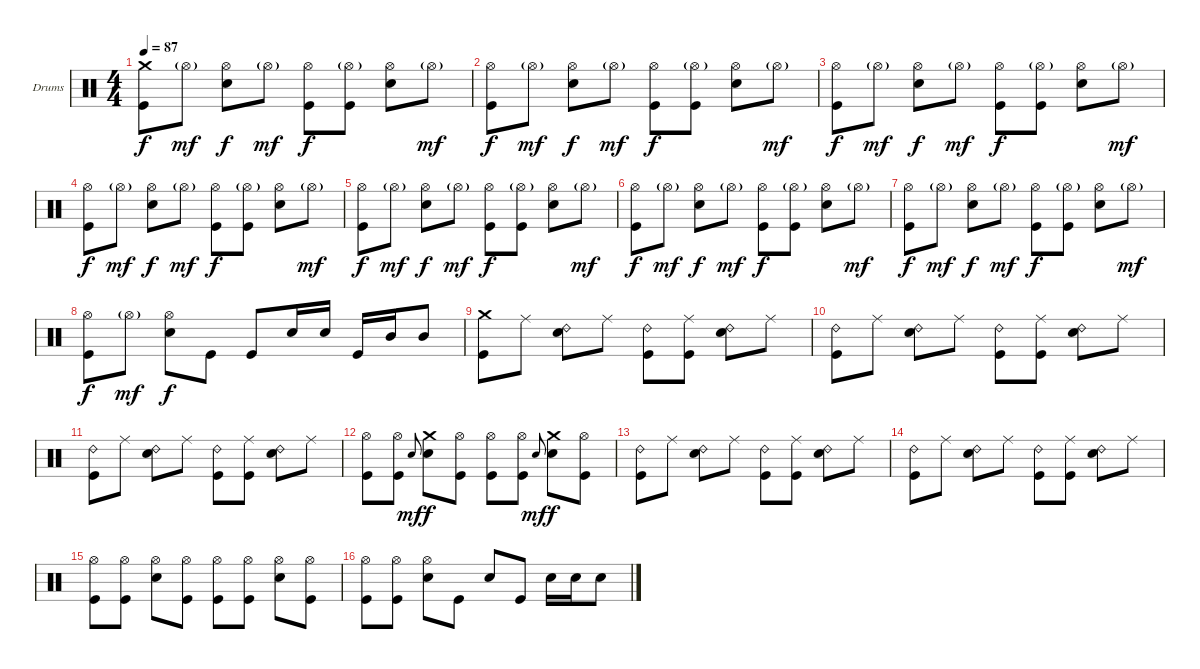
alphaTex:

\bracketExtendMode groupsimilarinstruments
\firstSystemTrackNameOrientation horizontal
\otherSystemsTrackNameOrientation horizontal
\track ("Drumkit" "Drums") {instrument percussion}
\staff {score}
\articulation defaults
\ts (4 4)
\tempo 87
\clef neutral
\ks c
("Crash medium (hit)" "Kick (hit)").8{dy f} "Hi-Hat (open)"{g}.8{dy mf} ("Hi-Hat (open)" "Snare (hit) 2").8{dy f} "Hi-Hat (open)"{g}.8{dy mf} ("Hi-Hat (open)" "Kick (hit)").8{dy f} ("Hi-Hat (open)"{g} "Kick (hit)").8 ("Hi-Hat (open)" "Snare (hit) 2").8 "Hi-Hat (open)"{g}.8{dy mf} |
("Hi-Hat (open)" "Kick (hit)").8{dy f} "Hi-Hat (open)"{g}.8{dy mf} ("Hi-Hat (open)" "Snare (hit) 2").8{dy f} "Hi-Hat (open)"{g}.8{dy mf} ("Hi-Hat (open)" "Kick (hit)").8{dy f} ("Hi-Hat (open)"{g} "Kick (hit)").8 ("Hi-Hat (open)" "Snare (hit) 2").8 "Hi-Hat (open)"{g}.8{dy mf} |
("Hi-Hat (open)" "Kick (hit)").8{dy f} "Hi-Hat (open)"{g}.8{dy mf} ("Hi-Hat (open)" "Snare (hit) 2").8{dy f} "Hi-Hat (open)"{g}.8{dy mf} ("Hi-Hat (open)" "Kick (hit)").8{dy f} ("Hi-Hat (open)"{g} "Kick (hit)").8 ("Hi-Hat (open)" "Snare (hit) 2").8 "Hi-Hat (open)"{g}.8{dy mf} |
("Hi-Hat (open)" "Kick (hit)").8{dy f} "Hi-Hat (open)"{g}.8{dy mf} ("Hi-Hat (open)" "Snare (hit) 2").8{dy f} "Hi-Hat (open)"{g}.8{dy mf} ("Hi-Hat (open)" "Kick (hit)").8{dy f} ("Hi-Hat (open)"{g} "Kick (hit)").8 ("Hi-Hat (open)" "Snare (hit) 2").8 "Hi-Hat (open)"{g}.8{dy mf} |
("Hi-Hat (open)" "Kick (hit)").8{dy f} "Hi-Hat (open)"{g}.8{dy mf} ("Hi-Hat (open)" "Snare (hit) 2").8{dy f} "Hi-Hat (open)"{g}.8{dy mf} ("Hi-Hat (open)" "Kick (hit)").8{dy f} ("Hi-Hat (open)"{g} "Kick (hit)").8 ("Hi-Hat (open)" "Snare (hit) 2").8 "Hi-Hat (open)"{g}.8{dy mf} |
("Hi-Hat (open)" "Kick (hit)").8{dy f} "Hi-Hat (open)"{g}.8{dy mf} ("Hi-Hat (open)" "Snare (hit) 2").8{dy f} "Hi-Hat (open)"{g}.8{dy mf} ("Hi-Hat (open)" "Kick (hit)").8{dy f} ("Hi-Hat (open)"{g} "Kick (hit)").8 ("Hi-Hat (open)" "Snare (hit) 2").8 "Hi-Hat (open)"{g}.8{dy mf} |
("Hi-Hat (open)" "Kick (hit)").8{dy f} "Hi-Hat (open)"{g}.8{dy mf} ("Hi-Hat (open)" "Snare (hit) 2").8{dy f} "Hi-Hat (open)"{g}.8{dy mf} ("Hi-Hat (open)" "Kick (hit)").8{dy f} ("Hi-Hat (open)"{g} "Kick (hit)").8 ("Hi-Hat (open)" "Snare (hit) 2").8 "Hi-Hat (open)"{g}.8{dy mf} |
("Hi-Hat (open)" "Kick (hit)").8{dy f} "Hi-Hat (open)"{g}.8{dy mf} ("Hi-Hat (open)" "Snare (hit) 2").8{dy f} "Kick (hit)".8 "Kick (hit)".8 "Snare (hit) 2".16 "Snare (hit) 2".16 "Kick (hit)".16 "Mid Tom (hit)".16 "Mid Tom (hit)".8 |
("Crash medium (hit)" "Kick (hit)").8 "Ride (middle)".8 ("Ride (bell) 2" "Snare (hit) 2").8 "Ride (middle)".8 ("Ride (bell) 2" "Kick (hit)").8 ("Ride (middle)" "Kick (hit)").8 ("Ride (bell) 2" "Snare (hit) 2").8 "Ride (middle)".8 |
("Ride (bell) 2" "Kick (hit)").8 "Ride (middle)".8 ("Ride (bell) 2" "Snare (hit) 2").8 "Ride (middle)".8 ("Ride (bell) 2" "Kick (hit)").8 ("Ride (middle)" "Kick (hit)").8 ("Ride (bell) 2" "Snare (hit) 2").8 "Ride (middle)".8 |
("Ride (bell) 2" "Kick (hit)").8 "Ride (middle)".8 ("Ride (bell) 2" "Snare (hit) 2").8 "Ride (middle)".8 ("Ride (bell) 2" "Kick (hit)").8 ("Ride (middle)" "Kick (hit)").8 ("Ride (bell) 2" "Snare (hit) 2").8 "Ride (middle)".8 |
("Hi-Hat (open)" "Kick (hit)").8 ("Hi-Hat (open)" "Kick (hit)").8 "Snare (hit) 2".8{gr onbeat dy mf} ("Crash medium (hit)" "Snare (hit) 2").8{dy f} ("Hi-Hat (open)" "Kick (hit)").8 ("Hi-Hat (open)" "Kick (hit)").8 ("Hi-Hat (open)" "Kick (hit)").8 "Snare (hit) 2".8{gr onbeat dy mf} ("Crash medium (hit)" "Snare (hit) 2").8{dy f} ("Hi-Hat (open)" "Kick (hit)").8 |
("Ride (bell) 2" "Kick (hit)").8 "Ride (middle)".8 ("Ride (bell) 2" "Snare (hit) 2").8 "Ride (middle)".8 ("Ride (bell) 2" "Kick (hit)").8 ("Ride (middle)" "Kick (hit)").8 ("Ride (bell) 2" "Snare (hit) 2").8 "Ride (middle)".8 |
("Ride (bell) 2" "Kick (hit)").8 "Ride (middle)".8 ("Ride (bell) 2" "Snare (hit) 2").8 "Ride (middle)".8 ("Ride (bell) 2" "Kick (hit)").8 ("Ride (middle)" "Kick (hit)").8 ("Ride (bell) 2" "Snare (hit) 2").8 "Ride (middle)".8 |
("Hi-Hat (open)" "Kick (hit)").8 ("Hi-Hat (open)" "Kick (hit)").8 ("Hi-Hat (open)" "Snare (hit) 2").8 ("Hi-Hat (open)" "Kick (hit)").8 ("Hi-Hat (open)" "Kick (hit)").8 ("Hi-Hat (open)" "Kick (hit)").8 ("Hi-Hat (open)" "Snare (hit) 2").8 ("Hi-Hat (open)" "Kick (hit)").8 |
("Hi-Hat (open)" "Kick (hit)").8 ("Hi-Hat (open)" "Kick (hit)").8 ("Hi-Hat (open)" "Snare (hit) 2").8 "Kick (hit)".8 "Snare (hit) 2".8 "Kick (hit)".8 "Snare (hit) 2".16 "Snare (hit) 2".16 "Snare (hit) 2".8
